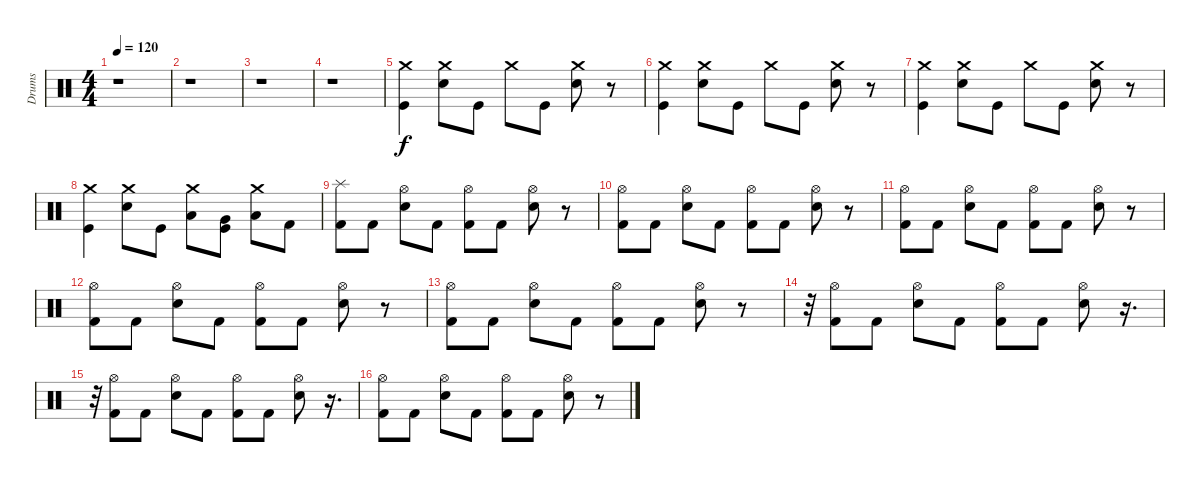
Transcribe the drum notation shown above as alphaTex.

\track ("Drums" "Drums") {instrument percussion}
\staff {score}
\articulation defaults
\ts (4 4)
\tempo 120
\clef neutral
\ks c
r.1{dy f} |
r.1 |
r.1 |
r.1 |
("Crash medium (hit)" "Kick (hit)").4 ("Crash medium (hit)" "Electric Snare (hit)").8 "Kick (hit)".8 "Crash medium (hit)".8 "Kick (hit)".8 ("Crash medium (hit)" "Electric Snare (hit)").8 r.8 |
("Crash medium (hit)" "Kick (hit)").4 ("Crash medium (hit)" "Electric Snare (hit)").8 "Kick (hit)".8 "Crash medium (hit)".8 "Kick (hit)".8 ("Crash medium (hit)" "Electric Snare (hit)").8 r.8 |
("Crash medium (hit)" "Kick (hit)").4 ("Crash medium (hit)" "Electric Snare (hit)").8 "Kick (hit)".8 "Crash medium (hit)".8 "Kick (hit)".8 ("Crash medium (hit)" "Electric Snare (hit)").8 r.8 |
("Crash medium (hit)" "Kick (hit)").4 ("Crash medium (hit)" "Electric Snare (hit)").8 "Kick (hit)".8 ("Low Tom (hit)" "Crash medium (hit)").8 ("Very Low Tom (hit)" "Kick (hit)").8 ("Low Floor Tom (hit)" "Crash medium (hit)").8 "Kick (hit) 2".8 |
("Splash (hit)" "Kick (hit) 2").8 "Kick (hit) 2".8 ("Hi-Hat (open)" "Electric Snare (hit)").8 "Kick (hit) 2".8 ("Hi-Hat (open)" "Kick (hit) 2").8 "Kick (hit) 2".8 ("Hi-Hat (open)" "Electric Snare (hit)").8 r.8 |
("Hi-Hat (open)" "Kick (hit) 2").8 "Kick (hit) 2".8 ("Hi-Hat (open)" "Electric Snare (hit)").8 "Kick (hit) 2".8 ("Hi-Hat (open)" "Kick (hit) 2").8 "Kick (hit) 2".8 ("Hi-Hat (open)" "Electric Snare (hit)").8 r.8 |
("Hi-Hat (open)" "Kick (hit) 2").8 "Kick (hit) 2".8 ("Hi-Hat (open)" "Electric Snare (hit)").8 "Kick (hit) 2".8 ("Hi-Hat (open)" "Kick (hit) 2").8 "Kick (hit) 2".8 ("Hi-Hat (open)" "Electric Snare (hit)").8 r.8 |
("Hi-Hat (open)" "Kick (hit) 2").8 "Kick (hit) 2".8 ("Hi-Hat (open)" "Electric Snare (hit)").8 "Kick (hit) 2".8 ("Hi-Hat (open)" "Kick (hit) 2").8 "Kick (hit) 2".8 ("Hi-Hat (open)" "Electric Snare (hit)").8 r.8 |
("Hi-Hat (open)" "Kick (hit) 2").8 "Kick (hit) 2".8 ("Hi-Hat (open)" "Electric Snare (hit)").8 "Kick (hit) 2".8 ("Hi-Hat (open)" "Kick (hit) 2").8 "Kick (hit) 2".8 ("Hi-Hat (open)" "Electric Snare (hit)").8 r.8 |
r.32 ("Hi-Hat (open)" "Kick (hit) 2").8 "Kick (hit) 2".8 ("Hi-Hat (open)" "Electric Snare (hit)").8 "Kick (hit) 2".8 ("Hi-Hat (open)" "Kick (hit) 2").8 "Kick (hit) 2".8 ("Hi-Hat (open)" "Electric Snare (hit)").8 r.16{d} |
r.32 ("Hi-Hat (open)" "Kick (hit) 2").8 "Kick (hit) 2".8 ("Hi-Hat (open)" "Electric Snare (hit)").8 "Kick (hit) 2".8 ("Hi-Hat (open)" "Kick (hit) 2").8 "Kick (hit) 2".8 ("Hi-Hat (open)" "Electric Snare (hit)").8 r.16{d} |
("Hi-Hat (open)" "Kick (hit) 2").8 "Kick (hit) 2".8 ("Hi-Hat (open)" "Electric Snare (hit)").8 "Kick (hit) 2".8 ("Hi-Hat (open)" "Kick (hit) 2").8 "Kick (hit) 2".8 ("Hi-Hat (open)" "Electric Snare (hit)").8 r.8
